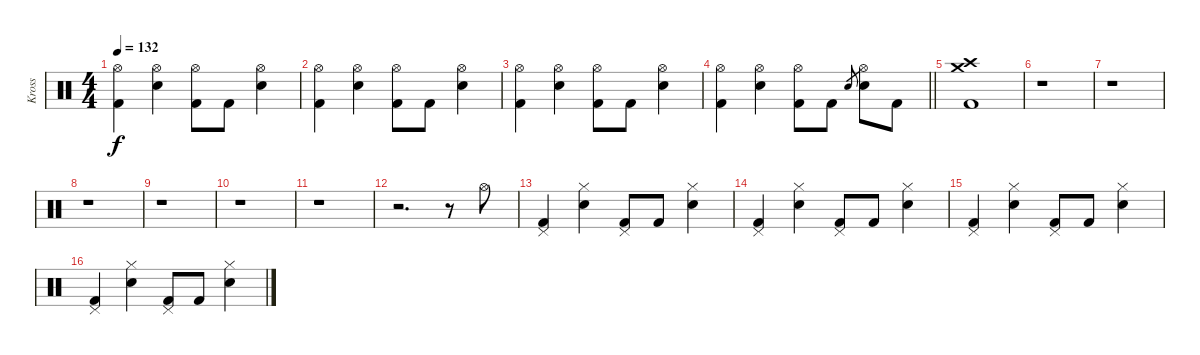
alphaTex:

\track ("Kross" "Kross") {instrument percussion}
\staff {score}
\articulation defaults
\ts (4 4)
\tempo 132
\clef neutral
\ks c
("Hi-Hat (open)" "Kick (hit) 2").4{dy f} ("Hi-Hat (open)" "Electric Snare (hit)").4 ("Hi-Hat (open)" "Kick (hit) 2").8 "Kick (hit) 2".8 ("Hi-Hat (open)" "Electric Snare (hit)").4 |
("Hi-Hat (open)" "Kick (hit) 2").4 ("Hi-Hat (open)" "Electric Snare (hit)").4 ("Hi-Hat (open)" "Kick (hit) 2").8 "Kick (hit) 2".8 ("Hi-Hat (open)" "Electric Snare (hit)").4 |
("Hi-Hat (open)" "Kick (hit) 2").4 ("Hi-Hat (open)" "Electric Snare (hit)").4 ("Hi-Hat (open)" "Kick (hit) 2").8 "Kick (hit) 2".8 ("Hi-Hat (open)" "Electric Snare (hit)").4 |
\barLineRight lightlight
("Hi-Hat (open)" "Kick (hit) 2").4 ("Hi-Hat (open)" "Electric Snare (hit)").4 ("Hi-Hat (open)" "Kick (hit) 2").8 "Kick (hit) 2".8 "Electric Snare (hit)".8{gr} ("Hi-Hat (open)" "Electric Snare (hit)").8 "Kick (hit) 2".8 |
("Crash high (hit)" "Crash medium (hit)" "Kick (hit) 2").1 |
r.1 |
r.1 |
r.1 |
r.1 |
r.1 |
r.1 |
r.2{d} r.8 "Hi-Hat (open)".8 |
("Pedal Hi-Hat (hit)" "Kick (hit) 2").4 ("Hi-Hat (closed)" "Electric Snare (hit)").4 ("Pedal Hi-Hat (hit)" "Kick (hit) 2").8 "Kick (hit) 2".8 ("Hi-Hat (closed)" "Electric Snare (hit)").4 |
("Pedal Hi-Hat (hit)" "Kick (hit) 2").4 ("Hi-Hat (closed)" "Electric Snare (hit)").4 ("Pedal Hi-Hat (hit)" "Kick (hit) 2").8 "Kick (hit) 2".8 ("Hi-Hat (closed)" "Electric Snare (hit)").4 |
("Pedal Hi-Hat (hit)" "Kick (hit) 2").4 ("Hi-Hat (closed)" "Electric Snare (hit)").4 ("Pedal Hi-Hat (hit)" "Kick (hit) 2").8 "Kick (hit) 2".8 ("Hi-Hat (closed)" "Electric Snare (hit)").4 |
("Pedal Hi-Hat (hit)" "Kick (hit) 2").4 ("Hi-Hat (closed)" "Electric Snare (hit)").4 ("Pedal Hi-Hat (hit)" "Kick (hit) 2").8 "Kick (hit) 2".8 ("Hi-Hat (closed)" "Electric Snare (hit)").4
